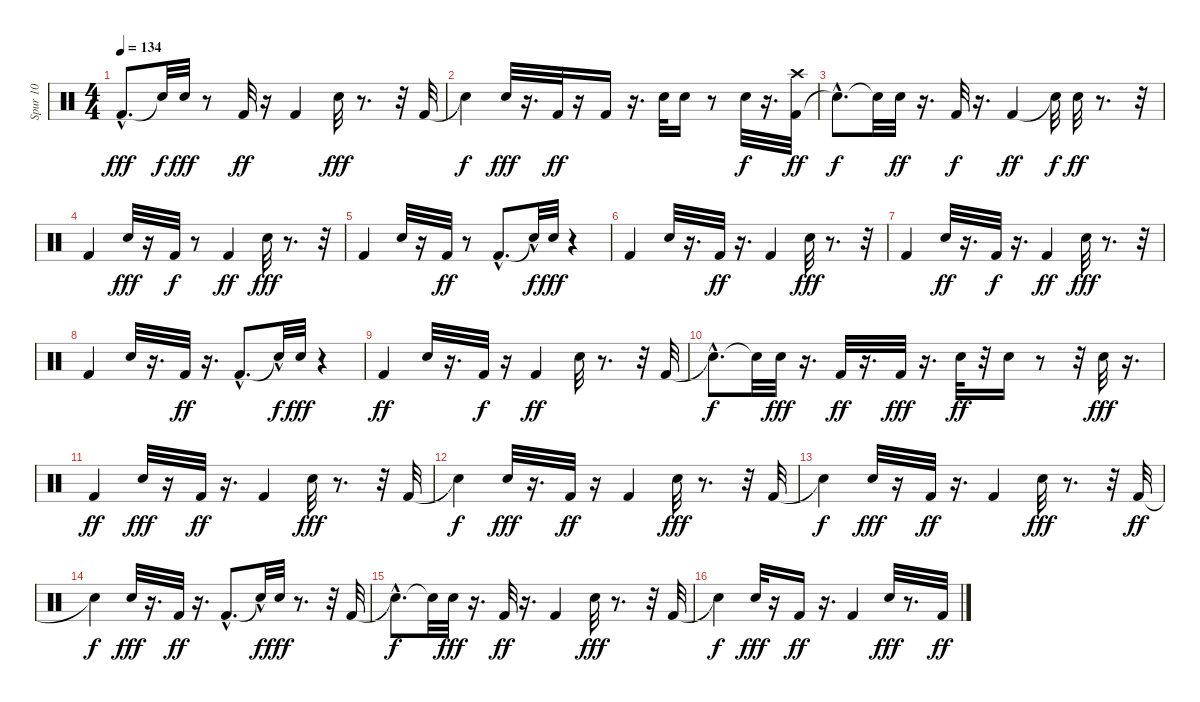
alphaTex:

\track ("Spur 10" "Spur 10") {instrument percussion}
\staff {score}
\articulation defaults
\ts (4 4)
\tempo 134
\clef neutral
\ks c "Kick (hit) 2"{hac}.8{d dy fff} "Snare (hit)"{t}.32{dy f} "Electric Snare (hit)".32{dy fff}
r.8 "Kick (hit) 2".32{dy ff} r.16 "Kick (hit) 2".4 "Electric Snare (hit)".32{dy fff} r.8{d} r.32 "Kick (hit) 2".32 |
"Snare (hit)"{t}.4{dy f} "Electric Snare (hit)".32{dy fff} r.16{d} "Kick (hit) 2".32{dy ff} r.16 "Kick (hit) 2".16 r.16{d} "Electric Snare (hit)".32 "Electric Snare (hit)".16 r.8 "Electric Snare (hit)".32{dy f} r.16{d} ("Kick (hit) 2" "Crash high (hit)").32{dy ff} |
"Snare (hit)"{hac t}.8{d dy f} "Snare (hit)"{t}.32 "Electric Snare (hit)".32{dy ff} r.16{d} "Kick (hit) 2".32{dy f} r.16{d} "Kick (hit) 2".4{dy ff} "Snare (hit)"{t}.32{dy f} "Electric Snare (hit)".32{dy ff} r.8{d} r.32 |
"Kick (hit) 2".4 "Electric Snare (hit)".32{dy fff} r.16 "Kick (hit) 2".32{dy f} r.8 "Kick (hit) 2".4{dy ff} "Electric Snare (hit)".32{dy fff} r.8{d} r.32 |
"Kick (hit) 2".4 "Electric Snare (hit)".32 r.16 "Kick (hit) 2".32{dy ff} r.8 "Kick (hit) 2"{hac}.8{d} "Snare (hit)"{hac t}.32{dy f} "Electric Snare (hit)".32{dy fff} r.4 |
"Kick (hit) 2".4 "Electric Snare (hit)".32 r.16{d} "Kick (hit) 2".32{dy ff} r.16{d} "Kick (hit) 2".4 "Electric Snare (hit)".32{dy fff} r.8{d} r.32 |
"Kick (hit) 2".4 "Electric Snare (hit)".32{dy ff} r.16{d} "Kick (hit) 2".32{dy f} r.16{d} "Kick (hit) 2".4{dy ff} "Electric Snare (hit)".32{dy fff} r.8{d} r.32 |
"Kick (hit) 2".4 "Electric Snare (hit)".32 r.16{d} "Kick (hit) 2".32{dy ff} r.16{d} "Kick (hit) 2"{hac}.8{d} "Snare (hit)"{hac t}.32{dy f} "Electric Snare (hit)".32{dy fff} r.4 |
"Kick (hit) 2".4{dy ff} "Electric Snare (hit)".32 r.16{d} "Kick (hit) 2".32{dy f} r.16 "Kick (hit) 2".4{dy ff} "Electric Snare (hit)".32 r.8{d} r.32 "Kick (hit) 2".32 |
"Snare (hit)"{hac t}.8{d dy f} "Snare (hit)"{t}.32 "Electric Snare (hit)".32{dy fff} r.16{d} "Kick (hit) 2".32{dy ff} r.16{d} "Kick (hit) 2".32{dy fff} r.16{d} "Electric Snare (hit)".32{dy ff} r.32 "Electric Snare (hit)".16 r.8 r.32 "Electric Snare (hit)".32{dy fff} r.16{d} |
"Kick (hit) 2".4{dy ff} "Electric Snare (hit)".32{dy fff} r.16 "Kick (hit) 2".32{dy ff} r.16{d} "Kick (hit) 2".4 "Electric Snare (hit)".32{dy fff} r.8{d} r.32 "Kick (hit) 2".32 |
"Snare (hit)"{t}.4{dy f} "Electric Snare (hit)".32{dy fff} r.16{d} "Kick (hit) 2".32{dy ff} r.16 "Kick (hit) 2".4 "Electric Snare (hit)".32{dy fff} r.8{d} r.32 "Kick (hit) 2".32 |
"Snare (hit)"{t}.4{dy f} "Electric Snare (hit)".32{dy fff} r.16 "Kick (hit) 2".32{dy ff} r.16{d} "Kick (hit) 2".4 "Electric Snare (hit)".32{dy fff} r.8{d} r.32 "Kick (hit) 2".32{dy ff} |
"Snare (hit)"{t}.4{dy f} "Electric Snare (hit)".32{dy fff} r.16{d} "Kick (hit) 2".32{dy ff} r.16{d} "Kick (hit) 2"{hac}.8{d} "Snare (hit)"{hac t}.32{dy f} "Electric Snare (hit)".32{dy fff} r.8{d} r.32 "Kick (hit) 2".32 |
"Snare (hit)"{hac t}.8{d dy f} "Snare (hit)"{t}.32 "Electric Snare (hit)".32{dy fff} r.16{d} "Kick (hit) 2".32{dy ff} r.16{d} "Kick (hit) 2".4 "Electric Snare (hit)".32{dy fff} r.8{d} r.32 "Kick (hit) 2".32 |
"Snare (hit)"{t}.4{dy f} "Electric Snare (hit)".32{dy fff} r.16 "Kick (hit) 2".16{dy ff} r.16{d} "Kick (hit) 2".4 "Electric Snare (hit)".32{dy fff} r.8{d} "Kick (hit) 2".32{dy ff}
